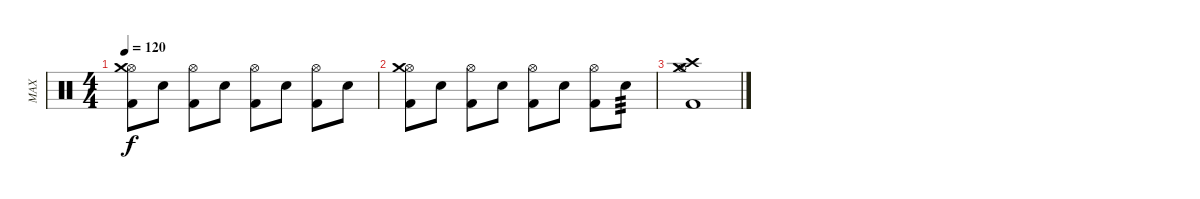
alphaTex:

\track ("MAX" "MAX") {instrument percussion}
\staff {score}
\articulation defaults
\ts (4 4)
\tempo 120
\clef neutral
\ks c
("Kick (hit) 2" "Hi-Hat (open)" "Crash medium (hit)").8{dy f} "Snare (hit) 2".8 ("Kick (hit) 2" "Hi-Hat (open)").8 "Snare (hit) 2".8 ("Kick (hit) 2" "Hi-Hat (open)").8 "Snare (hit) 2".8 ("Kick (hit) 2" "Hi-Hat (open)").8 "Snare (hit) 2".8 |
("Kick (hit) 2" "Hi-Hat (open)" "Crash medium (hit)").8 "Snare (hit) 2".8 ("Kick (hit) 2" "Hi-Hat (open)").8 "Snare (hit) 2".8 ("Kick (hit) 2" "Hi-Hat (open)").8 "Snare (hit) 2".8 ("Kick (hit) 2" "Hi-Hat (open)").8 "Snare (hit) 2".8{tp 3} |
("Crash medium (hit)" "Crash high (hit)" "Kick (hit) 2" "Hi-Hat (open)").1
